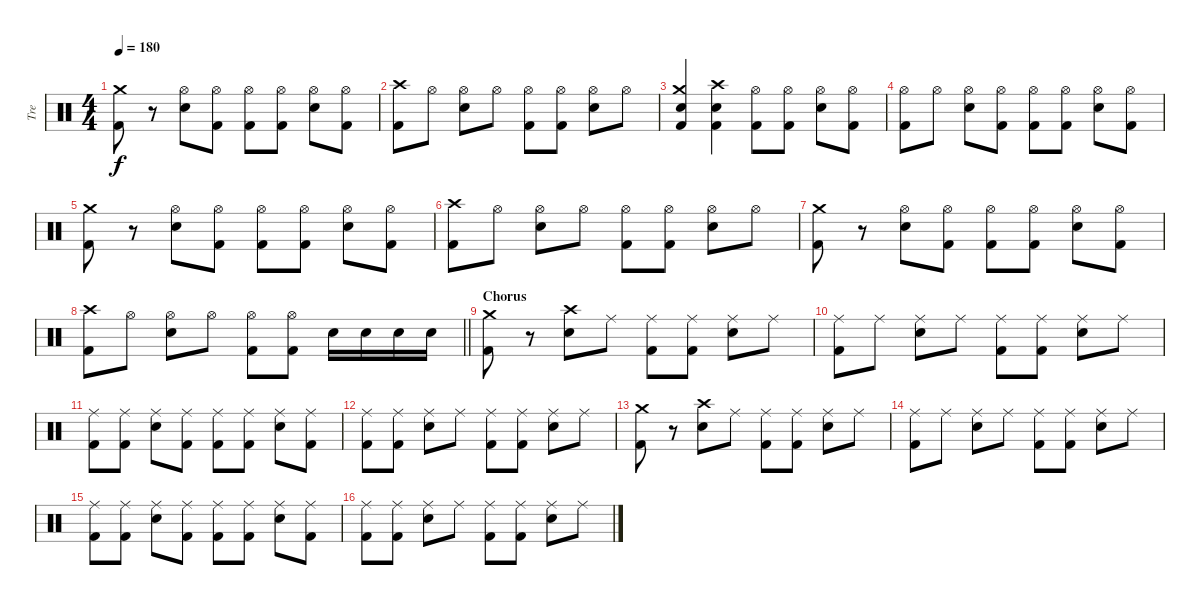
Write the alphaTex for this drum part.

\track ("Tre" "Tre") {instrument percussion}
\staff {score}
\articulation defaults
\ts (4 4)
\tempo 180
\clef neutral
\ks c
("Kick (hit) 2" "Crash medium (hit)").8{dy f} r.8 ("Snare (hit) 2" "Hi-Hat (open)").8 ("Kick (hit) 2" "Hi-Hat (open)").8 ("Kick (hit) 2" "Hi-Hat (open)").8 ("Kick (hit) 2" "Hi-Hat (open)").8 ("Snare (hit) 2" "Hi-Hat (open)").8 ("Kick (hit) 2" "Hi-Hat (open)").8 |
("Kick (hit) 2" "Crash high (hit)").8 "Hi-Hat (open)".8 ("Snare (hit) 2" "Hi-Hat (open)").8 "Hi-Hat (open)".8 ("Kick (hit) 2" "Hi-Hat (open)").8 ("Kick (hit) 2" "Hi-Hat (open)").8 ("Snare (hit) 2" "Hi-Hat (open)").8 "Hi-Hat (open)".8 |
("Kick (hit) 2" "Snare (hit) 2" "Crash medium (hit)").4 ("Kick (hit) 2" "Snare (hit) 2" "Crash high (hit)").4 ("Kick (hit) 2" "Hi-Hat (open)").8 ("Kick (hit) 2" "Hi-Hat (open)").8 ("Snare (hit) 2" "Hi-Hat (open)").8 ("Kick (hit) 2" "Hi-Hat (open)").8 |
("Kick (hit) 2" "Hi-Hat (open)").8 "Hi-Hat (open)".8 ("Snare (hit) 2" "Hi-Hat (open)").8 ("Kick (hit) 2" "Hi-Hat (open)").8 ("Kick (hit) 2" "Hi-Hat (open)").8 ("Kick (hit) 2" "Hi-Hat (open)").8 ("Snare (hit) 2" "Hi-Hat (open)").8 ("Kick (hit) 2" "Hi-Hat (open)").8 |
("Kick (hit) 2" "Crash medium (hit)").8 r.8 ("Snare (hit) 2" "Hi-Hat (open)").8 ("Kick (hit) 2" "Hi-Hat (open)").8 ("Kick (hit) 2" "Hi-Hat (open)").8 ("Kick (hit) 2" "Hi-Hat (open)").8 ("Snare (hit) 2" "Hi-Hat (open)").8 ("Kick (hit) 2" "Hi-Hat (open)").8 |
("Kick (hit) 2" "Crash high (hit)").8 "Hi-Hat (open)".8 ("Snare (hit) 2" "Hi-Hat (open)").8 "Hi-Hat (open)".8 ("Kick (hit) 2" "Hi-Hat (open)").8 ("Kick (hit) 2" "Hi-Hat (open)").8 ("Snare (hit) 2" "Hi-Hat (open)").8 "Hi-Hat (open)".8 |
("Kick (hit) 2" "Crash medium (hit)").8 r.8 ("Snare (hit) 2" "Hi-Hat (open)").8 ("Kick (hit) 2" "Hi-Hat (open)").8 ("Kick (hit) 2" "Hi-Hat (open)").8 ("Kick (hit) 2" "Hi-Hat (open)").8 ("Snare (hit) 2" "Hi-Hat (open)").8 ("Kick (hit) 2" "Hi-Hat (open)").8 |
\barLineRight lightlight
("Kick (hit) 2" "Crash high (hit)").8 "Hi-Hat (open)".8 ("Snare (hit) 2" "Hi-Hat (open)").8 "Hi-Hat (open)".8 ("Kick (hit) 2" "Hi-Hat (open)").8 ("Kick (hit) 2" "Hi-Hat (open)").8 "Snare (hit) 2".16 "Snare (hit) 2".16 "Snare (hit) 2".16 "Snare (hit) 2".16 |
\section ("" "Chorus")
("Kick (hit) 2" "Crash medium (hit)").8 r.8 ("Snare (hit) 2" "Crash high (hit)").8 "Ride (middle)".8 ("Kick (hit) 2" "Ride (middle)").8 ("Kick (hit) 2" "Ride (middle)").8 ("Snare (hit) 2" "Ride (middle)").8 "Ride (middle)".8 |
("Kick (hit) 2" "Ride (middle)").8 "Ride (middle)".8 ("Snare (hit) 2" "Ride (middle)").8 "Ride (middle)".8 ("Kick (hit) 2" "Ride (middle)").8 ("Kick (hit) 2" "Ride (middle)").8 ("Snare (hit) 2" "Ride (middle)").8 "Ride (middle)".8 |
("Kick (hit) 2" "Ride (middle)").8 ("Kick (hit) 2" "Ride (middle)").8 ("Snare (hit) 2" "Ride (middle)").8 ("Kick (hit) 2" "Ride (middle)").8 ("Kick (hit) 2" "Ride (middle)").8 ("Kick (hit) 2" "Ride (middle)").8 ("Snare (hit) 2" "Ride (middle)").8 ("Kick (hit) 2" "Ride (middle)").8 |
("Kick (hit) 2" "Ride (middle)").8 ("Kick (hit) 2" "Ride (middle)").8 ("Snare (hit) 2" "Ride (middle)").8 "Ride (middle)".8 ("Kick (hit) 2" "Ride (middle)").8 ("Kick (hit) 2" "Ride (middle)").8 ("Snare (hit) 2" "Ride (middle)").8 "Ride (middle)".8 |
("Kick (hit) 2" "Crash medium (hit)").8 r.8 ("Snare (hit) 2" "Crash high (hit)").8 "Ride (middle)".8 ("Kick (hit) 2" "Ride (middle)").8 ("Kick (hit) 2" "Ride (middle)").8 ("Snare (hit) 2" "Ride (middle)").8 "Ride (middle)".8 |
("Kick (hit) 2" "Ride (middle)").8 "Ride (middle)".8 ("Snare (hit) 2" "Ride (middle)").8 "Ride (middle)".8 ("Kick (hit) 2" "Ride (middle)").8 ("Kick (hit) 2" "Ride (middle)").8 ("Snare (hit) 2" "Ride (middle)").8 "Ride (middle)".8 |
("Kick (hit) 2" "Ride (middle)").8 ("Kick (hit) 2" "Ride (middle)").8 ("Snare (hit) 2" "Ride (middle)").8 ("Kick (hit) 2" "Ride (middle)").8 ("Kick (hit) 2" "Ride (middle)").8 ("Kick (hit) 2" "Ride (middle)").8 ("Snare (hit) 2" "Ride (middle)").8 ("Kick (hit) 2" "Ride (middle)").8 |
("Kick (hit) 2" "Ride (middle)").8 ("Kick (hit) 2" "Ride (middle)").8 ("Snare (hit) 2" "Ride (middle)").8 "Ride (middle)".8 ("Kick (hit) 2" "Ride (middle)").8 ("Kick (hit) 2" "Ride (middle)").8 ("Snare (hit) 2" "Ride (middle)").8 "Ride (middle)".8
